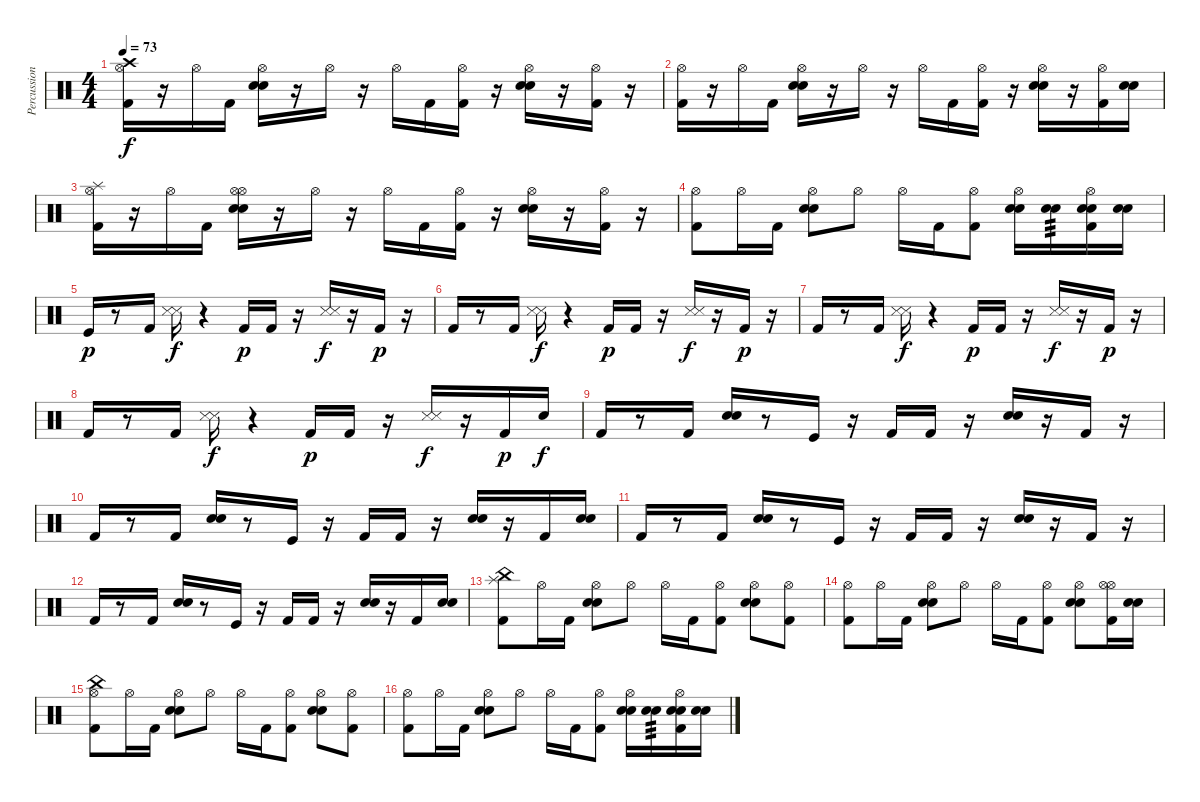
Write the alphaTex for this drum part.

\track ("Percussion" "Percussion") {instrument percussion}
\staff {score}
\articulation defaults
\ts (4 4)
\tempo 73
\clef neutral
\ks c
("Kick (hit) 2" "Crash high (hit)" "Hi-Hat (open)").16{dy f} r.16 "Hi-Hat (open)".16 "Kick (hit) 2".16 ("Electric Snare (hit)" "Electric Snare (hit)" "Hi-Hat (open)").16 r.16 "Hi-Hat (open)".16 r.16 "Hi-Hat (open)".16 "Kick (hit) 2".16 ("Kick (hit) 2" "Hi-Hat (open)").16 r.16 ("Electric Snare (hit)" "Electric Snare (hit)" "Hi-Hat (open)").16 r.16 ("Kick (hit) 2" "Hi-Hat (open)").16 r.16 |
("Kick (hit) 2" "Hi-Hat (open)").16 r.16 "Hi-Hat (open)".16 "Kick (hit) 2".16 ("Electric Snare (hit)" "Electric Snare (hit)" "Hi-Hat (open)").16 r.16 "Hi-Hat (open)".16 r.16 "Hi-Hat (open)".16 "Kick (hit) 2".16 ("Kick (hit) 2" "Hi-Hat (open)").16 r.16 ("Electric Snare (hit)" "Electric Snare (hit)" "Hi-Hat (open)").16 r.16 ("Kick (hit) 2" "Hi-Hat (open)").16 ("Electric Snare (hit)" "Electric Snare (hit)").16 |
("Kick (hit) 2" "Splash (hit)" "Hi-Hat (open)").16 r.16 "Hi-Hat (open)".16 "Kick (hit) 2".16 ("Electric Snare (hit)" "Electric Snare (hit)" "Hi-Hat (open)" "Hi-Hat (open)").16 r.16 "Hi-Hat (open)".16 r.16 "Hi-Hat (open)".16 "Kick (hit) 2".16 ("Kick (hit) 2" "Hi-Hat (open)").16 r.16 ("Electric Snare (hit)" "Electric Snare (hit)" "Hi-Hat (open)").16 r.16 ("Kick (hit) 2" "Hi-Hat (open)").16 r.16 |
("Kick (hit) 2" "Hi-Hat (open)").8 "Hi-Hat (open)".16 "Kick (hit) 2".16 ("Electric Snare (hit)" "Electric Snare (hit)" "Hi-Hat (open)").8 "Hi-Hat (open)".8 "Hi-Hat (open)".16 "Kick (hit) 2".16 ("Kick (hit) 2" "Hi-Hat (open)").8 ("Electric Snare (hit)" "Electric Snare (hit)" "Hi-Hat (open)").16 ("Electric Snare (hit)" "Electric Snare (hit)").16{tp 3} ("Kick (hit) 2" "Electric Snare (hit)" "Hi-Hat (open)" "Electric Snare (hit)").16 ("Electric Snare (hit)" "Electric Snare (hit)").16 |
"Kick (hit)".16{dy p} r.8 "Kick (hit) 2".16 ("Snare (side stick) 3" "Snare (side stick) 3").16{dy f} r.4 "Kick (hit) 2".16{dy p} "Kick (hit) 2".16 r.16 ("Snare (side stick) 3" "Snare (side stick) 3").16{dy f} r.16 "Kick (hit) 2".16{dy p} r.16 |
"Kick (hit) 2".16 r.8 "Kick (hit) 2".16 ("Snare (side stick) 3" "Snare (side stick) 3").16{dy f} r.4 "Kick (hit) 2".16{dy p} "Kick (hit) 2".16 r.16 ("Snare (side stick) 3" "Snare (side stick) 3").16{dy f} r.16 "Kick (hit) 2".16{dy p} r.16 |
"Kick (hit) 2".16 r.8 "Kick (hit) 2".16 ("Snare (side stick) 3" "Snare (side stick) 3").16{dy f} r.4 "Kick (hit) 2".16{dy p} "Kick (hit) 2".16 r.16 ("Snare (side stick) 3" "Snare (side stick) 3").16{dy f} r.16 "Kick (hit) 2".16{dy p} r.16 |
"Kick (hit) 2".16 r.8 "Kick (hit) 2".16 ("Snare (side stick) 3" "Snare (side stick) 3").16{dy f} r.4 "Kick (hit) 2".16{dy p} "Kick (hit) 2".16 r.16 ("Snare (side stick) 3" "Snare (side stick) 3").16{dy f} r.16 "Kick (hit) 2".16{dy p} "Electric Snare (hit)".16{dy f} |
"Kick (hit) 2".16 r.8 "Kick (hit) 2".16 ("Electric Snare (hit)" "Electric Snare (hit)").16 r.8 "Kick (hit)".16 r.16 "Kick (hit) 2".16 "Kick (hit) 2".16 r.16 ("Electric Snare (hit)" "Electric Snare (hit)").16 r.16 "Kick (hit) 2".16 r.16 |
"Kick (hit) 2".16 r.8 "Kick (hit) 2".16 ("Electric Snare (hit)" "Electric Snare (hit)").16 r.8 "Kick (hit)".16 r.16 "Kick (hit) 2".16 "Kick (hit) 2".16 r.16 ("Electric Snare (hit)" "Electric Snare (hit)").16 r.16 "Kick (hit) 2".16 ("Electric Snare (hit)" "Electric Snare (hit)").16 |
"Kick (hit) 2".16 r.8 "Kick (hit) 2".16 ("Electric Snare (hit)" "Electric Snare (hit)").16 r.8 "Kick (hit)".16 r.16 "Kick (hit) 2".16 "Kick (hit) 2".16 r.16 ("Electric Snare (hit)" "Electric Snare (hit)").16 r.16 "Kick (hit) 2".16 r.16 |
"Kick (hit) 2".16 r.8 "Kick (hit) 2".16 ("Electric Snare (hit)" "Electric Snare (hit)").16 r.8 "Kick (hit)".16 r.16 "Kick (hit) 2".16 "Kick (hit) 2".16 r.16 ("Electric Snare (hit)" "Electric Snare (hit)").16 r.16 "Kick (hit) 2".16 ("Electric Snare (hit)" "Electric Snare (hit)").16 |
("Kick (hit) 2" "China (hit)" "Splash (hit)").8 "Hi-Hat (open)".16 "Kick (hit) 2".16 ("Electric Snare (hit)" "Electric Snare (hit)" "Hi-Hat (open)").8 "Hi-Hat (open)".8 "Hi-Hat (open)".16 "Kick (hit) 2".16 ("Kick (hit) 2" "Hi-Hat (open)").8 ("Electric Snare (hit)" "Electric Snare (hit)" "Hi-Hat (open)").8 ("Kick (hit) 2" "Hi-Hat (open)").8 |
("Kick (hit) 2" "Hi-Hat (open)").8 "Hi-Hat (open)".16 "Kick (hit) 2".16 ("Electric Snare (hit)" "Electric Snare (hit)" "Hi-Hat (open)").8 "Hi-Hat (open)".8 "Hi-Hat (open)".16 "Kick (hit) 2".16 ("Kick (hit) 2" "Hi-Hat (open)").8 ("Electric Snare (hit)" "Electric Snare (hit)" "Hi-Hat (open)").8 ("Kick (hit) 2" "Hi-Hat (open)" "Hi-Hat (open)").16 ("Electric Snare (hit)" "Electric Snare (hit)").16 |
("Kick (hit) 2" "China (hit)" "Hi-Hat (open)").8 "Hi-Hat (open)".16 "Kick (hit) 2".16 ("Electric Snare (hit)" "Electric Snare (hit)" "Hi-Hat (open)").8 "Hi-Hat (open)".8 "Hi-Hat (open)".16 "Kick (hit) 2".16 ("Kick (hit) 2" "Hi-Hat (open)").8 ("Electric Snare (hit)" "Electric Snare (hit)" "Hi-Hat (open)").8 ("Kick (hit) 2" "Hi-Hat (open)").8 |
("Kick (hit) 2" "Hi-Hat (open)").8 "Hi-Hat (open)".16 "Kick (hit) 2".16 ("Electric Snare (hit)" "Electric Snare (hit)" "Hi-Hat (open)").8 "Hi-Hat (open)".8 "Hi-Hat (open)".16 "Kick (hit) 2".16 ("Kick (hit) 2" "Hi-Hat (open)").8 ("Electric Snare (hit)" "Electric Snare (hit)" "Hi-Hat (open)").16 ("Electric Snare (hit)" "Electric Snare (hit)").16{tp 3} ("Kick (hit) 2" "Electric Snare (hit)" "Hi-Hat (open)" "Electric Snare (hit)").16 ("Electric Snare (hit)" "Electric Snare (hit)").16
